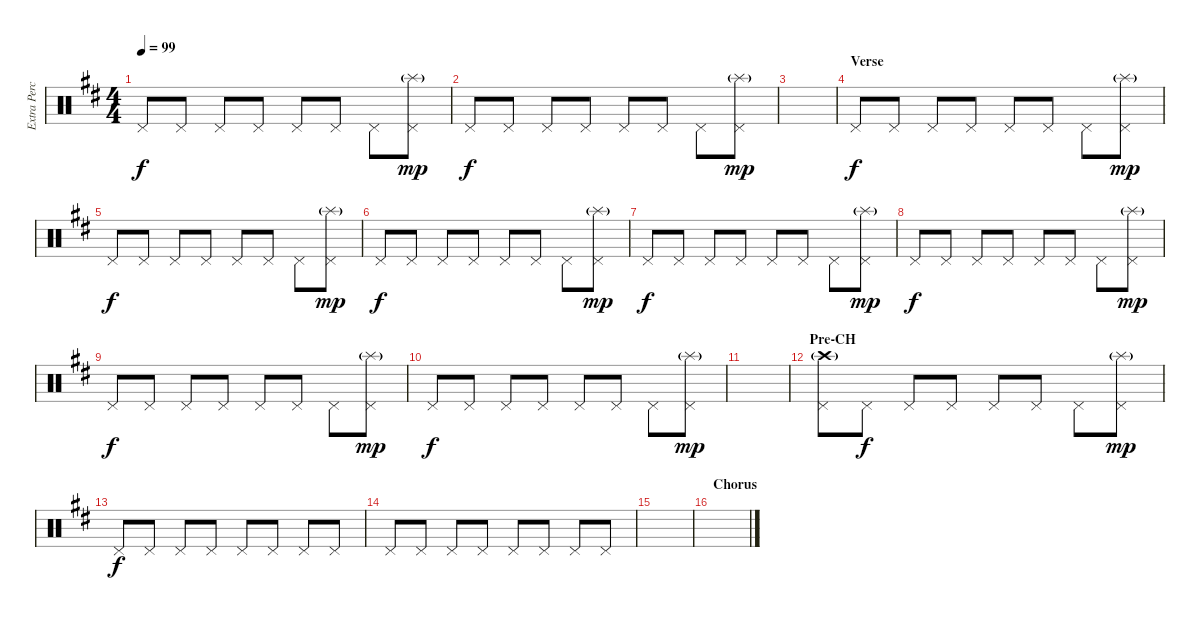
\track ("Extra Percussion" "Extra Perc") {instrument percussion}
\staff {score}
\articulation defaults
\ts (4 4)
\tempo 99
\clef neutral
\ks d "Pedal Hi-Hat (hit)".8{dy f} "Pedal Hi-Hat (hit)".8 "Pedal Hi-Hat (hit)".8 "Pedal Hi-Hat (hit)".8 "Pedal Hi-Hat (hit)".8 "Pedal Hi-Hat (hit)".8 "Pedal Hi-Hat (hit)".8
("Pedal Hi-Hat (hit)" "Splash (hit)"{g}).8{dy mp} |
"Pedal Hi-Hat (hit)".8{dy f} "Pedal Hi-Hat (hit)".8 "Pedal Hi-Hat (hit)".8 "Pedal Hi-Hat (hit)".8 "Pedal Hi-Hat (hit)".8 "Pedal Hi-Hat (hit)".8 "Pedal Hi-Hat (hit)".8 ("Pedal Hi-Hat (hit)" "Splash (hit)"{g}).8{dy mp} |
|
\section ("" "Verse")
"Pedal Hi-Hat (hit)".8{dy f} "Pedal Hi-Hat (hit)".8 "Pedal Hi-Hat (hit)".8 "Pedal Hi-Hat (hit)".8 "Pedal Hi-Hat (hit)".8 "Pedal Hi-Hat (hit)".8 "Pedal Hi-Hat (hit)".8 ("Pedal Hi-Hat (hit)" "Splash (hit)"{g}).8{dy mp} |
"Pedal Hi-Hat (hit)".8{dy f} "Pedal Hi-Hat (hit)".8 "Pedal Hi-Hat (hit)".8 "Pedal Hi-Hat (hit)".8 "Pedal Hi-Hat (hit)".8 "Pedal Hi-Hat (hit)".8 "Pedal Hi-Hat (hit)".8 ("Pedal Hi-Hat (hit)" "Splash (hit)"{g}).8{dy mp} |
"Pedal Hi-Hat (hit)".8{dy f} "Pedal Hi-Hat (hit)".8 "Pedal Hi-Hat (hit)".8 "Pedal Hi-Hat (hit)".8 "Pedal Hi-Hat (hit)".8 "Pedal Hi-Hat (hit)".8 "Pedal Hi-Hat (hit)".8 ("Pedal Hi-Hat (hit)" "Splash (hit)"{g}).8{dy mp} |
"Pedal Hi-Hat (hit)".8{dy f} "Pedal Hi-Hat (hit)".8 "Pedal Hi-Hat (hit)".8 "Pedal Hi-Hat (hit)".8 "Pedal Hi-Hat (hit)".8 "Pedal Hi-Hat (hit)".8 "Pedal Hi-Hat (hit)".8 ("Pedal Hi-Hat (hit)" "Splash (hit)"{g}).8{dy mp} |
"Pedal Hi-Hat (hit)".8{dy f} "Pedal Hi-Hat (hit)".8 "Pedal Hi-Hat (hit)".8 "Pedal Hi-Hat (hit)".8 "Pedal Hi-Hat (hit)".8 "Pedal Hi-Hat (hit)".8 "Pedal Hi-Hat (hit)".8 ("Pedal Hi-Hat (hit)" "Splash (hit)"{g}).8{dy mp} |
"Pedal Hi-Hat (hit)".8{dy f} "Pedal Hi-Hat (hit)".8 "Pedal Hi-Hat (hit)".8 "Pedal Hi-Hat (hit)".8 "Pedal Hi-Hat (hit)".8 "Pedal Hi-Hat (hit)".8 "Pedal Hi-Hat (hit)".8 ("Pedal Hi-Hat (hit)" "Splash (hit)"{g}).8{dy mp} |
"Pedal Hi-Hat (hit)".8{dy f} "Pedal Hi-Hat (hit)".8 "Pedal Hi-Hat (hit)".8 "Pedal Hi-Hat (hit)".8 "Pedal Hi-Hat (hit)".8 "Pedal Hi-Hat (hit)".8 "Pedal Hi-Hat (hit)".8 ("Pedal Hi-Hat (hit)" "Splash (hit)"{g}).8{dy mp} |
|
\section ("" "Pre-CH")
("Pedal Hi-Hat (hit)" "Crash high (hit)"{g}).8 "Pedal Hi-Hat (hit)".8{dy f} "Pedal Hi-Hat (hit)".8 "Pedal Hi-Hat (hit)".8 "Pedal Hi-Hat (hit)".8 "Pedal Hi-Hat (hit)".8 "Pedal Hi-Hat (hit)".8 ("Pedal Hi-Hat (hit)" "Splash (hit)"{g}).8{dy mp} |
"Pedal Hi-Hat (hit)".8{dy f} "Pedal Hi-Hat (hit)".8 "Pedal Hi-Hat (hit)".8 "Pedal Hi-Hat (hit)".8 "Pedal Hi-Hat (hit)".8 "Pedal Hi-Hat (hit)".8 "Pedal Hi-Hat (hit)".8 "Pedal Hi-Hat (hit)".8 |
"Pedal Hi-Hat (hit)".8 "Pedal Hi-Hat (hit)".8 "Pedal Hi-Hat (hit)".8 "Pedal Hi-Hat (hit)".8 "Pedal Hi-Hat (hit)".8 "Pedal Hi-Hat (hit)".8 "Pedal Hi-Hat (hit)".8 "Pedal Hi-Hat (hit)".8 |
|
\section ("" "Chorus")
